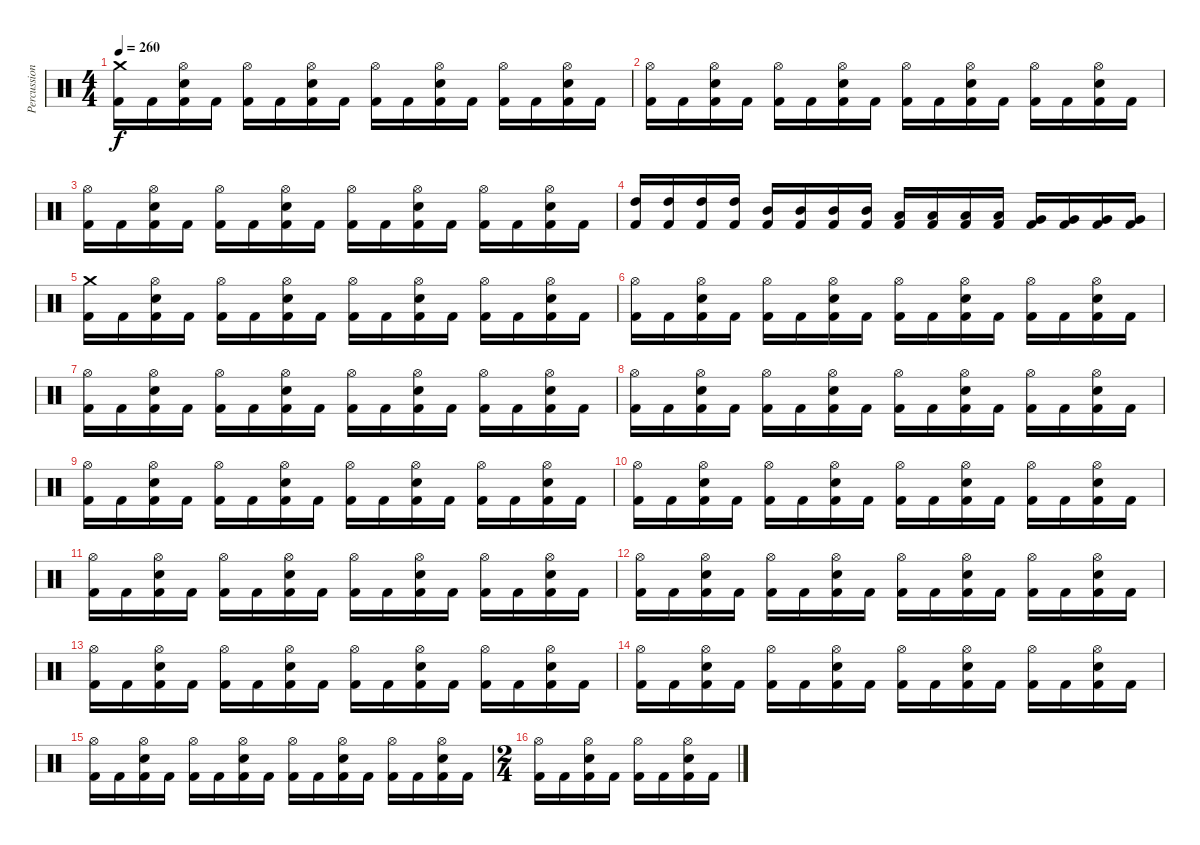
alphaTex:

\track ("Percussion" "Percussion") {instrument percussion}
\staff {score}
\articulation defaults
\ts (4 4)
\tempo 260
\tempo 173
\tempo 260
\clef neutral
\ks c
("Crash medium (hit)" "Kick (hit) 2").16{dy f} "Kick (hit) 2".16 ("Hi-Hat (open)" "Snare (hit) 2" "Kick (hit) 2").16 "Kick (hit) 2".16 ("Hi-Hat (open)" "Kick (hit) 2").16 "Kick (hit) 2".16 ("Hi-Hat (open)" "Snare (hit) 2" "Kick (hit) 2").16 "Kick (hit) 2".16 ("Hi-Hat (open)" "Kick (hit) 2").16 "Kick (hit) 2".16 ("Hi-Hat (open)" "Snare (hit) 2" "Kick (hit) 2").16 "Kick (hit) 2".16 ("Hi-Hat (open)" "Kick (hit) 2").16 "Kick (hit) 2".16 ("Hi-Hat (open)" "Snare (hit) 2" "Kick (hit) 2").16 "Kick (hit) 2".16 |
("Hi-Hat (open)" "Kick (hit) 2").16 "Kick (hit) 2".16 ("Hi-Hat (open)" "Snare (hit) 2" "Kick (hit) 2").16 "Kick (hit) 2".16 ("Hi-Hat (open)" "Kick (hit) 2").16 "Kick (hit) 2".16 ("Hi-Hat (open)" "Snare (hit) 2" "Kick (hit) 2").16 "Kick (hit) 2".16 ("Hi-Hat (open)" "Kick (hit) 2").16 "Kick (hit) 2".16 ("Hi-Hat (open)" "Snare (hit) 2" "Kick (hit) 2").16 "Kick (hit) 2".16 ("Hi-Hat (open)" "Kick (hit) 2").16 "Kick (hit) 2".16 ("Hi-Hat (open)" "Snare (hit) 2" "Kick (hit) 2").16 "Kick (hit) 2".16 |
("Hi-Hat (open)" "Kick (hit) 2").16 "Kick (hit) 2".16 ("Hi-Hat (open)" "Snare (hit) 2" "Kick (hit) 2").16 "Kick (hit) 2".16 ("Hi-Hat (open)" "Kick (hit) 2").16 "Kick (hit) 2".16 ("Hi-Hat (open)" "Snare (hit) 2" "Kick (hit) 2").16 "Kick (hit) 2".16 ("Hi-Hat (open)" "Kick (hit) 2").16 "Kick (hit) 2".16 ("Hi-Hat (open)" "Snare (hit) 2" "Kick (hit) 2").16 "Kick (hit) 2".16 ("Hi-Hat (open)" "Kick (hit) 2").16 "Kick (hit) 2".16 ("Hi-Hat (open)" "Snare (hit) 2" "Kick (hit) 2").16 "Kick (hit) 2".16 |
("High Tom (hit)" "Kick (hit) 2").16 ("High Tom (hit)" "Kick (hit) 2").16 ("High Tom (hit)" "Kick (hit) 2").16 ("High Tom (hit)" "Kick (hit) 2").16 ("Mid Tom (hit)" "Kick (hit) 2").16 ("Mid Tom (hit)" "Kick (hit) 2").16 ("Mid Tom (hit)" "Kick (hit) 2").16 ("Mid Tom (hit)" "Kick (hit) 2").16 ("Low Tom (hit)" "Kick (hit) 2").16 ("Low Tom (hit)" "Kick (hit) 2").16 ("Low Tom (hit)" "Kick (hit) 2").16 ("Low Tom (hit)" "Kick (hit) 2").16 ("Very Low Tom (hit)" "Kick (hit) 2").16 ("Very Low Tom (hit)" "Kick (hit) 2").16 ("Very Low Tom (hit)" "Kick (hit) 2").16 ("Very Low Tom (hit)" "Kick (hit) 2").16 |
("Crash medium (hit)" "Kick (hit) 2").16 "Kick (hit) 2".16 ("Hi-Hat (open)" "Snare (hit) 2" "Kick (hit) 2").16 "Kick (hit) 2".16 ("Hi-Hat (open)" "Kick (hit) 2").16 "Kick (hit) 2".16 ("Hi-Hat (open)" "Snare (hit) 2" "Kick (hit) 2").16 "Kick (hit) 2".16 ("Hi-Hat (open)" "Kick (hit) 2").16 "Kick (hit) 2".16 ("Hi-Hat (open)" "Snare (hit) 2" "Kick (hit) 2").16 "Kick (hit) 2".16 ("Hi-Hat (open)" "Kick (hit) 2").16 "Kick (hit) 2".16 ("Hi-Hat (open)" "Snare (hit) 2" "Kick (hit) 2").16 "Kick (hit) 2".16 |
("Hi-Hat (open)" "Kick (hit) 2").16 "Kick (hit) 2".16 ("Hi-Hat (open)" "Snare (hit) 2" "Kick (hit) 2").16 "Kick (hit) 2".16 ("Hi-Hat (open)" "Kick (hit) 2").16 "Kick (hit) 2".16 ("Hi-Hat (open)" "Snare (hit) 2" "Kick (hit) 2").16 "Kick (hit) 2".16 ("Hi-Hat (open)" "Kick (hit) 2").16 "Kick (hit) 2".16 ("Hi-Hat (open)" "Snare (hit) 2" "Kick (hit) 2").16 "Kick (hit) 2".16 ("Hi-Hat (open)" "Kick (hit) 2").16 "Kick (hit) 2".16 ("Hi-Hat (open)" "Snare (hit) 2" "Kick (hit) 2").16 "Kick (hit) 2".16 |
("Hi-Hat (open)" "Kick (hit) 2").16 "Kick (hit) 2".16 ("Hi-Hat (open)" "Snare (hit) 2" "Kick (hit) 2").16 "Kick (hit) 2".16 ("Hi-Hat (open)" "Kick (hit) 2").16 "Kick (hit) 2".16 ("Hi-Hat (open)" "Snare (hit) 2" "Kick (hit) 2").16 "Kick (hit) 2".16 ("Hi-Hat (open)" "Kick (hit) 2").16 "Kick (hit) 2".16 ("Hi-Hat (open)" "Snare (hit) 2" "Kick (hit) 2").16 "Kick (hit) 2".16 ("Hi-Hat (open)" "Kick (hit) 2").16 "Kick (hit) 2".16 ("Hi-Hat (open)" "Snare (hit) 2" "Kick (hit) 2").16 "Kick (hit) 2".16 |
("Hi-Hat (open)" "Kick (hit) 2").16 "Kick (hit) 2".16 ("Hi-Hat (open)" "Snare (hit) 2" "Kick (hit) 2").16 "Kick (hit) 2".16 ("Hi-Hat (open)" "Kick (hit) 2").16 "Kick (hit) 2".16 ("Hi-Hat (open)" "Snare (hit) 2" "Kick (hit) 2").16 "Kick (hit) 2".16 ("Hi-Hat (open)" "Kick (hit) 2").16 "Kick (hit) 2".16 ("Hi-Hat (open)" "Snare (hit) 2" "Kick (hit) 2").16 "Kick (hit) 2".16 ("Hi-Hat (open)" "Kick (hit) 2").16 "Kick (hit) 2".16 ("Hi-Hat (open)" "Snare (hit) 2" "Kick (hit) 2").16 "Kick (hit) 2".16 |
("Hi-Hat (open)" "Kick (hit) 2").16 "Kick (hit) 2".16 ("Hi-Hat (open)" "Snare (hit) 2" "Kick (hit) 2").16 "Kick (hit) 2".16 ("Hi-Hat (open)" "Kick (hit) 2").16 "Kick (hit) 2".16 ("Hi-Hat (open)" "Snare (hit) 2" "Kick (hit) 2").16 "Kick (hit) 2".16 ("Hi-Hat (open)" "Kick (hit) 2").16 "Kick (hit) 2".16 ("Hi-Hat (open)" "Snare (hit) 2" "Kick (hit) 2").16 "Kick (hit) 2".16 ("Hi-Hat (open)" "Kick (hit) 2").16 "Kick (hit) 2".16 ("Hi-Hat (open)" "Snare (hit) 2" "Kick (hit) 2").16 "Kick (hit) 2".16 |
("Hi-Hat (open)" "Kick (hit) 2").16 "Kick (hit) 2".16 ("Hi-Hat (open)" "Snare (hit) 2" "Kick (hit) 2").16 "Kick (hit) 2".16 ("Hi-Hat (open)" "Kick (hit) 2").16 "Kick (hit) 2".16 ("Hi-Hat (open)" "Snare (hit) 2" "Kick (hit) 2").16 "Kick (hit) 2".16 ("Hi-Hat (open)" "Kick (hit) 2").16 "Kick (hit) 2".16 ("Hi-Hat (open)" "Snare (hit) 2" "Kick (hit) 2").16 "Kick (hit) 2".16 ("Hi-Hat (open)" "Kick (hit) 2").16 "Kick (hit) 2".16 ("Hi-Hat (open)" "Snare (hit) 2" "Kick (hit) 2").16 "Kick (hit) 2".16 |
("Hi-Hat (open)" "Kick (hit) 2").16 "Kick (hit) 2".16 ("Hi-Hat (open)" "Snare (hit) 2" "Kick (hit) 2").16 "Kick (hit) 2".16 ("Hi-Hat (open)" "Kick (hit) 2").16 "Kick (hit) 2".16 ("Hi-Hat (open)" "Snare (hit) 2" "Kick (hit) 2").16 "Kick (hit) 2".16 ("Hi-Hat (open)" "Kick (hit) 2").16 "Kick (hit) 2".16 ("Hi-Hat (open)" "Snare (hit) 2" "Kick (hit) 2").16 "Kick (hit) 2".16 ("Hi-Hat (open)" "Kick (hit) 2").16 "Kick (hit) 2".16 ("Hi-Hat (open)" "Snare (hit) 2" "Kick (hit) 2").16 "Kick (hit) 2".16 |
("Hi-Hat (open)" "Kick (hit) 2").16 "Kick (hit) 2".16 ("Hi-Hat (open)" "Snare (hit) 2" "Kick (hit) 2").16 "Kick (hit) 2".16 ("Hi-Hat (open)" "Kick (hit) 2").16 "Kick (hit) 2".16 ("Hi-Hat (open)" "Snare (hit) 2" "Kick (hit) 2").16 "Kick (hit) 2".16 ("Hi-Hat (open)" "Kick (hit) 2").16 "Kick (hit) 2".16 ("Hi-Hat (open)" "Snare (hit) 2" "Kick (hit) 2").16 "Kick (hit) 2".16 ("Hi-Hat (open)" "Kick (hit) 2").16 "Kick (hit) 2".16 ("Hi-Hat (open)" "Snare (hit) 2" "Kick (hit) 2").16 "Kick (hit) 2".16 |
("Hi-Hat (open)" "Kick (hit) 2").16 "Kick (hit) 2".16 ("Hi-Hat (open)" "Snare (hit) 2" "Kick (hit) 2").16 "Kick (hit) 2".16 ("Hi-Hat (open)" "Kick (hit) 2").16 "Kick (hit) 2".16 ("Hi-Hat (open)" "Snare (hit) 2" "Kick (hit) 2").16 "Kick (hit) 2".16 ("Hi-Hat (open)" "Kick (hit) 2").16 "Kick (hit) 2".16 ("Hi-Hat (open)" "Snare (hit) 2" "Kick (hit) 2").16 "Kick (hit) 2".16 ("Hi-Hat (open)" "Kick (hit) 2").16 "Kick (hit) 2".16 ("Hi-Hat (open)" "Snare (hit) 2" "Kick (hit) 2").16 "Kick (hit) 2".16 |
("Hi-Hat (open)" "Kick (hit) 2").16 "Kick (hit) 2".16 ("Hi-Hat (open)" "Snare (hit) 2" "Kick (hit) 2").16 "Kick (hit) 2".16 ("Hi-Hat (open)" "Kick (hit) 2").16 "Kick (hit) 2".16 ("Hi-Hat (open)" "Snare (hit) 2" "Kick (hit) 2").16 "Kick (hit) 2".16 ("Hi-Hat (open)" "Kick (hit) 2").16 "Kick (hit) 2".16 ("Hi-Hat (open)" "Snare (hit) 2" "Kick (hit) 2").16 "Kick (hit) 2".16 ("Hi-Hat (open)" "Kick (hit) 2").16 "Kick (hit) 2".16 ("Hi-Hat (open)" "Snare (hit) 2" "Kick (hit) 2").16 "Kick (hit) 2".16 |
("Hi-Hat (open)" "Kick (hit) 2").16 "Kick (hit) 2".16 ("Hi-Hat (open)" "Snare (hit) 2" "Kick (hit) 2").16 "Kick (hit) 2".16 ("Hi-Hat (open)" "Kick (hit) 2").16 "Kick (hit) 2".16 ("Hi-Hat (open)" "Snare (hit) 2" "Kick (hit) 2").16 "Kick (hit) 2".16 ("Hi-Hat (open)" "Kick (hit) 2").16 "Kick (hit) 2".16 ("Hi-Hat (open)" "Snare (hit) 2" "Kick (hit) 2").16 "Kick (hit) 2".16 ("Hi-Hat (open)" "Kick (hit) 2").16 "Kick (hit) 2".16 ("Hi-Hat (open)" "Snare (hit) 2" "Kick (hit) 2").16 "Kick (hit) 2".16 |
\ts (2 4)
("Hi-Hat (open)" "Kick (hit) 2").16 "Kick (hit) 2".16 ("Hi-Hat (open)" "Snare (hit) 2" "Kick (hit) 2").16 "Kick (hit) 2".16 ("Hi-Hat (open)" "Kick (hit) 2").16 "Kick (hit) 2".16 ("Hi-Hat (open)" "Snare (hit) 2" "Kick (hit) 2").16 "Kick (hit) 2".16
